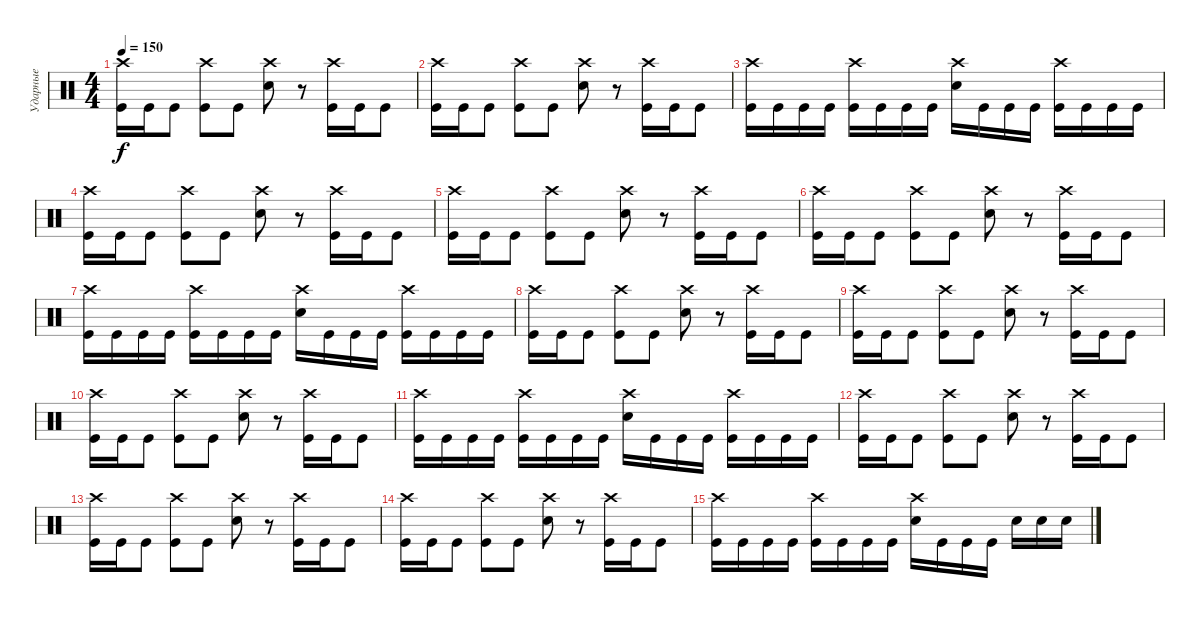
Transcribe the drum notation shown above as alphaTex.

\track ("Ударные" "Ударные") {instrument percussion}
\staff {score}
\articulation defaults
\ts (4 4)
\tempo 150
\clef neutral
\ks c
("Kick (hit)" "Crash high (hit)").16{dy f} "Kick (hit)".16 "Kick (hit)".8 ("Crash high (hit)" "Kick (hit)").8 "Kick (hit)".8 ("Snare (hit) 2" "Crash high (hit)").8 r.8 ("Kick (hit)" "Crash high (hit)").16 "Kick (hit)".16 "Kick (hit)".8 |
("Kick (hit)" "Crash high (hit)").16 "Kick (hit)".16 "Kick (hit)".8 ("Crash high (hit)" "Kick (hit)").8 "Kick (hit)".8 ("Snare (hit) 2" "Crash high (hit)").8 r.8 ("Kick (hit)" "Crash high (hit)").16 "Kick (hit)".16 "Kick (hit)".8 |
("Kick (hit)" "Crash high (hit)").16 "Kick (hit)".16 "Kick (hit)".16 "Kick (hit)".16 ("Kick (hit)" "Crash high (hit)").16 "Kick (hit)".16 "Kick (hit)".16 "Kick (hit)".16 ("Snare (hit) 2" "Crash high (hit)").16 "Kick (hit)".16 "Kick (hit)".16 "Kick (hit)".16 ("Kick (hit)" "Crash high (hit)").16 "Kick (hit)".16 "Kick (hit)".16 "Kick (hit)".16 |
("Kick (hit)" "Crash high (hit)").16 "Kick (hit)".16 "Kick (hit)".8 ("Crash high (hit)" "Kick (hit)").8 "Kick (hit)".8 ("Snare (hit) 2" "Crash high (hit)").8 r.8 ("Kick (hit)" "Crash high (hit)").16 "Kick (hit)".16 "Kick (hit)".8 |
("Kick (hit)" "Crash high (hit)").16 "Kick (hit)".16 "Kick (hit)".8 ("Crash high (hit)" "Kick (hit)").8 "Kick (hit)".8 ("Snare (hit) 2" "Crash high (hit)").8 r.8 ("Kick (hit)" "Crash high (hit)").16 "Kick (hit)".16 "Kick (hit)".8 |
("Kick (hit)" "Crash high (hit)").16 "Kick (hit)".16 "Kick (hit)".8 ("Crash high (hit)" "Kick (hit)").8 "Kick (hit)".8 ("Snare (hit) 2" "Crash high (hit)").8 r.8 ("Kick (hit)" "Crash high (hit)").16 "Kick (hit)".16 "Kick (hit)".8 |
("Kick (hit)" "Crash high (hit)").16 "Kick (hit)".16 "Kick (hit)".16 "Kick (hit)".16 ("Kick (hit)" "Crash high (hit)").16 "Kick (hit)".16 "Kick (hit)".16 "Kick (hit)".16 ("Snare (hit) 2" "Crash high (hit)").16 "Kick (hit)".16 "Kick (hit)".16 "Kick (hit)".16 ("Kick (hit)" "Crash high (hit)").16 "Kick (hit)".16 "Kick (hit)".16 "Kick (hit)".16 |
("Kick (hit)" "Crash high (hit)").16 "Kick (hit)".16 "Kick (hit)".8 ("Crash high (hit)" "Kick (hit)").8 "Kick (hit)".8 ("Snare (hit) 2" "Crash high (hit)").8 r.8 ("Kick (hit)" "Crash high (hit)").16 "Kick (hit)".16 "Kick (hit)".8 |
("Kick (hit)" "Crash high (hit)").16 "Kick (hit)".16 "Kick (hit)".8 ("Crash high (hit)" "Kick (hit)").8 "Kick (hit)".8 ("Snare (hit) 2" "Crash high (hit)").8 r.8 ("Kick (hit)" "Crash high (hit)").16 "Kick (hit)".16 "Kick (hit)".8 |
("Kick (hit)" "Crash high (hit)").16 "Kick (hit)".16 "Kick (hit)".8 ("Crash high (hit)" "Kick (hit)").8 "Kick (hit)".8 ("Snare (hit) 2" "Crash high (hit)").8 r.8 ("Kick (hit)" "Crash high (hit)").16 "Kick (hit)".16 "Kick (hit)".8 |
("Kick (hit)" "Crash high (hit)").16 "Kick (hit)".16 "Kick (hit)".16 "Kick (hit)".16 ("Kick (hit)" "Crash high (hit)").16 "Kick (hit)".16 "Kick (hit)".16 "Kick (hit)".16 ("Snare (hit) 2" "Crash high (hit)").16 "Kick (hit)".16 "Kick (hit)".16 "Kick (hit)".16 ("Kick (hit)" "Crash high (hit)").16 "Kick (hit)".16 "Kick (hit)".16 "Kick (hit)".16 |
("Kick (hit)" "Crash high (hit)").16 "Kick (hit)".16 "Kick (hit)".8 ("Crash high (hit)" "Kick (hit)").8 "Kick (hit)".8 ("Snare (hit) 2" "Crash high (hit)").8 r.8 ("Kick (hit)" "Crash high (hit)").16 "Kick (hit)".16 "Kick (hit)".8 |
("Kick (hit)" "Crash high (hit)").16 "Kick (hit)".16 "Kick (hit)".8 ("Crash high (hit)" "Kick (hit)").8 "Kick (hit)".8 ("Snare (hit) 2" "Crash high (hit)").8 r.8 ("Kick (hit)" "Crash high (hit)").16 "Kick (hit)".16 "Kick (hit)".8 |
("Kick (hit)" "Crash high (hit)").16 "Kick (hit)".16 "Kick (hit)".8 ("Crash high (hit)" "Kick (hit)").8 "Kick (hit)".8 ("Snare (hit) 2" "Crash high (hit)").8 r.8 ("Kick (hit)" "Crash high (hit)").16 "Kick (hit)".16 "Kick (hit)".8 |
("Kick (hit)" "Crash high (hit)").16 "Kick (hit)".16 "Kick (hit)".16 "Kick (hit)".16 ("Kick (hit)" "Crash high (hit)").16 "Kick (hit)".16 "Kick (hit)".16 "Kick (hit)".16 ("Snare (hit) 2" "Crash high (hit)").16 "Kick (hit)".16 "Kick (hit)".16 "Kick (hit)".16 "Snare (hit) 2".16 "Snare (hit) 2".16 "Snare (hit) 2".16
